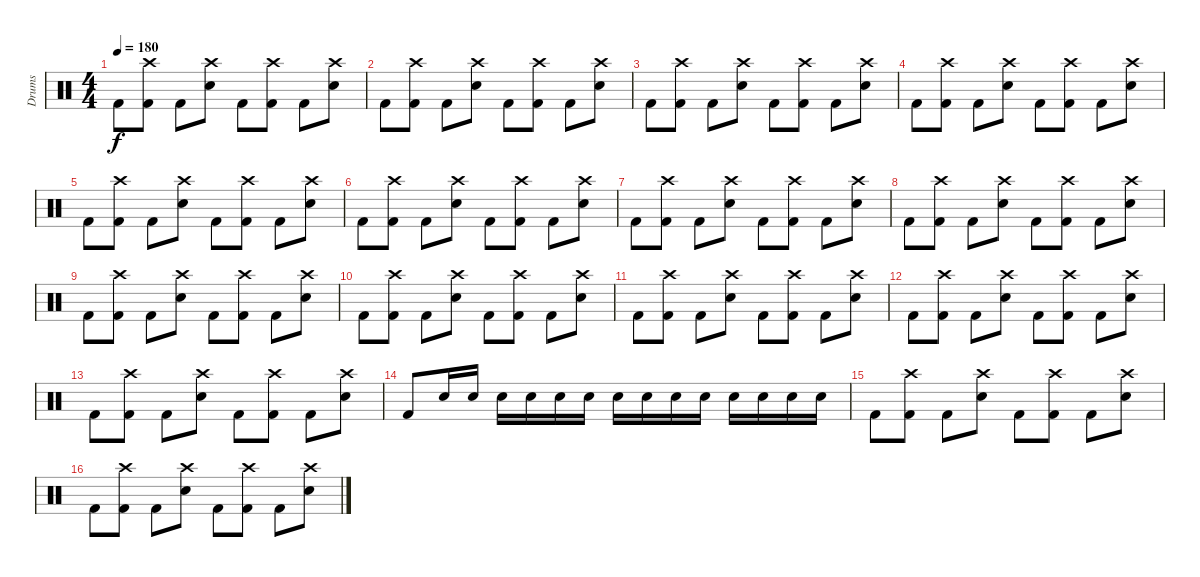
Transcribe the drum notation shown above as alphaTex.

\track ("Drums" "Drums") {instrument percussion}
\staff {score}
\articulation defaults
\ts (4 4)
\tempo 180
\clef neutral
\ks c "Kick (hit) 2".8{dy f}
("Crash high (hit)" "Kick (hit) 2").8 "Kick (hit) 2".8 ("Crash high (hit)" "Electric Snare (hit)").8 "Kick (hit) 2".8 ("Crash high (hit)" "Kick (hit) 2").8 "Kick (hit) 2".8 ("Crash high (hit)" "Electric Snare (hit)").8 |
"Kick (hit) 2".8 ("Crash high (hit)" "Kick (hit) 2").8 "Kick (hit) 2".8 ("Crash high (hit)" "Electric Snare (hit)").8 "Kick (hit) 2".8 ("Crash high (hit)" "Kick (hit) 2").8 "Kick (hit) 2".8 ("Crash high (hit)" "Electric Snare (hit)").8 |
"Kick (hit) 2".8 ("Crash high (hit)" "Kick (hit) 2").8 "Kick (hit) 2".8 ("Crash high (hit)" "Electric Snare (hit)").8 "Kick (hit) 2".8 ("Crash high (hit)" "Kick (hit) 2").8 "Kick (hit) 2".8 ("Crash high (hit)" "Electric Snare (hit)").8 |
"Kick (hit) 2".8 ("Crash high (hit)" "Kick (hit) 2").8 "Kick (hit) 2".8 ("Crash high (hit)" "Electric Snare (hit)").8 "Kick (hit) 2".8 ("Crash high (hit)" "Kick (hit) 2").8 "Kick (hit) 2".8 ("Crash high (hit)" "Electric Snare (hit)").8 |
"Kick (hit) 2".8 ("Crash high (hit)" "Kick (hit) 2").8 "Kick (hit) 2".8 ("Crash high (hit)" "Electric Snare (hit)").8 "Kick (hit) 2".8 ("Crash high (hit)" "Kick (hit) 2").8 "Kick (hit) 2".8 ("Crash high (hit)" "Electric Snare (hit)").8 |
"Kick (hit) 2".8 ("Crash high (hit)" "Kick (hit) 2").8 "Kick (hit) 2".8 ("Crash high (hit)" "Electric Snare (hit)").8 "Kick (hit) 2".8 ("Crash high (hit)" "Kick (hit) 2").8 "Kick (hit) 2".8 ("Crash high (hit)" "Electric Snare (hit)").8 |
"Kick (hit) 2".8 ("Crash high (hit)" "Kick (hit) 2").8 "Kick (hit) 2".8 ("Crash high (hit)" "Electric Snare (hit)").8 "Kick (hit) 2".8 ("Crash high (hit)" "Kick (hit) 2").8 "Kick (hit) 2".8 ("Crash high (hit)" "Electric Snare (hit)").8 |
"Kick (hit) 2".8 ("Crash high (hit)" "Kick (hit) 2").8 "Kick (hit) 2".8 ("Crash high (hit)" "Electric Snare (hit)").8 "Kick (hit) 2".8 ("Crash high (hit)" "Kick (hit) 2").8 "Kick (hit) 2".8 ("Crash high (hit)" "Electric Snare (hit)").8 |
"Kick (hit) 2".8 ("Crash high (hit)" "Kick (hit) 2").8 "Kick (hit) 2".8 ("Crash high (hit)" "Electric Snare (hit)").8 "Kick (hit) 2".8 ("Crash high (hit)" "Kick (hit) 2").8 "Kick (hit) 2".8 ("Crash high (hit)" "Electric Snare (hit)").8 |
"Kick (hit) 2".8 ("Crash high (hit)" "Kick (hit) 2").8 "Kick (hit) 2".8 ("Crash high (hit)" "Electric Snare (hit)").8 "Kick (hit) 2".8 ("Crash high (hit)" "Kick (hit) 2").8 "Kick (hit) 2".8 ("Crash high (hit)" "Electric Snare (hit)").8 |
"Kick (hit) 2".8 ("Crash high (hit)" "Kick (hit) 2").8 "Kick (hit) 2".8 ("Crash high (hit)" "Electric Snare (hit)").8 "Kick (hit) 2".8 ("Crash high (hit)" "Kick (hit) 2").8 "Kick (hit) 2".8 ("Crash high (hit)" "Electric Snare (hit)").8 |
"Kick (hit) 2".8 ("Crash high (hit)" "Kick (hit) 2").8 "Kick (hit) 2".8 ("Crash high (hit)" "Electric Snare (hit)").8 "Kick (hit) 2".8 ("Crash high (hit)" "Kick (hit) 2").8 "Kick (hit) 2".8 ("Crash high (hit)" "Electric Snare (hit)").8 |
"Kick (hit) 2".8 ("Crash high (hit)" "Kick (hit) 2").8 "Kick (hit) 2".8 ("Crash high (hit)" "Electric Snare (hit)").8 "Kick (hit) 2".8 ("Crash high (hit)" "Kick (hit) 2").8 "Kick (hit) 2".8 ("Crash high (hit)" "Electric Snare (hit)").8 |
"Kick (hit) 2".8 "Electric Snare (hit)".16 "Electric Snare (hit)".16 "Electric Snare (hit)".16 "Electric Snare (hit)".16 "Electric Snare (hit)".16 "Electric Snare (hit)".16 "Electric Snare (hit)".16 "Electric Snare (hit)".16 "Electric Snare (hit)".16 "Electric Snare (hit)".16 "Electric Snare (hit)".16 "Electric Snare (hit)".16 "Electric Snare (hit)".16 "Electric Snare (hit)".16 |
"Kick (hit) 2".8 ("Crash high (hit)" "Kick (hit) 2").8 "Kick (hit) 2".8 ("Crash high (hit)" "Electric Snare (hit)").8 "Kick (hit) 2".8 ("Crash high (hit)" "Kick (hit) 2").8 "Kick (hit) 2".8 ("Crash high (hit)" "Electric Snare (hit)").8 |
"Kick (hit) 2".8 ("Crash high (hit)" "Kick (hit) 2").8 "Kick (hit) 2".8 ("Crash high (hit)" "Electric Snare (hit)").8 "Kick (hit) 2".8 ("Crash high (hit)" "Kick (hit) 2").8 "Kick (hit) 2".8 ("Crash high (hit)" "Electric Snare (hit)").8
